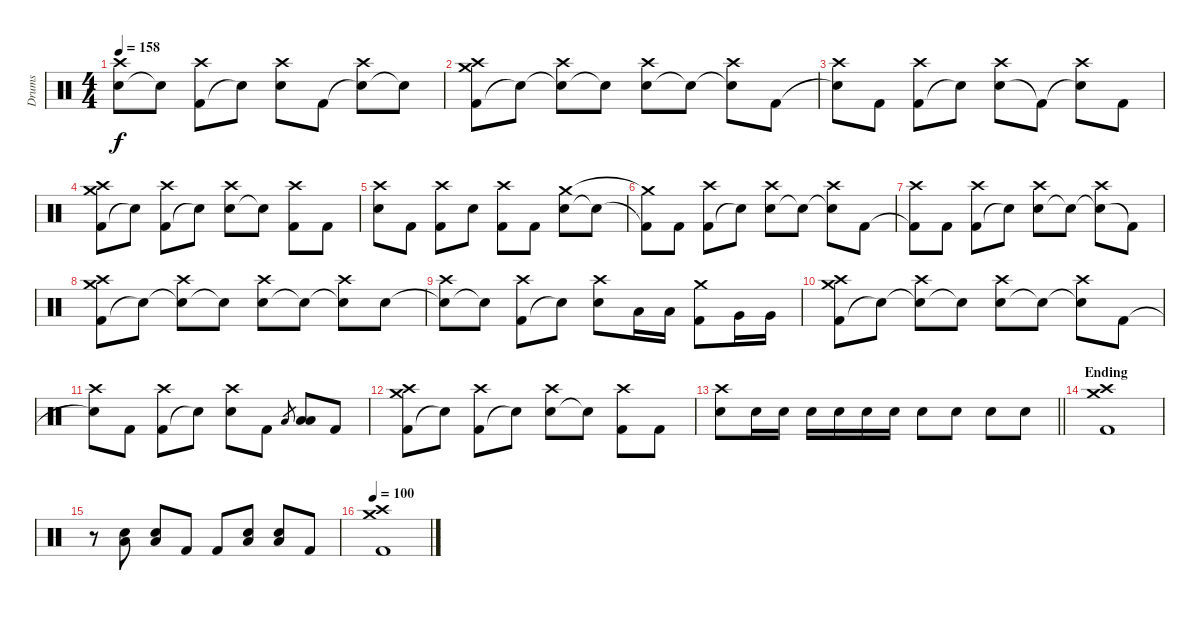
\track ("Drums" "Drums") {instrument percussion}
\staff {score}
\articulation defaults
\ts (4 4)
\tempo 158
\clef neutral
\ks c
("Snare (hit)"{t} "Crash high (hit)").8{dy f} "Snare (hit)"{t}.8 ("Kick (hit) 2" "Crash high (hit)").8 "Snare (hit)"{t}.8 ("Electric Snare (hit)" "Crash high (hit)").8 "Kick (hit) 2".8 ("Snare (hit)"{t} "Crash high (hit)").8 "Snare (hit)"{t}.8 |
("Kick (hit) 2" "Crash medium (hit)" "Crash high (hit)").8 "Snare (hit)"{t}.8 ("Snare (hit)"{t} "Crash high (hit)").8 "Snare (hit)"{t}.8 ("Electric Snare (hit)" "Crash high (hit)").8 "Snare (hit)"{t}.8 ("Snare (hit)"{t} "Crash high (hit)").8 "Kick (hit) 2".8 |
("Snare (hit)"{t} "Crash high (hit)").8 "Kick (hit) 2".8 ("Kick (hit) 2" "Crash high (hit)").8 "Snare (hit)"{t}.8 ("Electric Snare (hit)" "Crash high (hit)").8 "Kick (hit) 2"{t}.8 ("Snare (hit)"{t} "Crash high (hit)").8 "Kick (hit) 2".8 |
("Kick (hit) 2" "Crash medium (hit)" "Crash high (hit)").8 "Snare (hit)"{t}.8 ("Kick (hit) 2" "Crash high (hit)").8 "Snare (hit)"{t}.8 ("Electric Snare (hit)" "Crash high (hit)").8 "Snare (hit)"{t}.8 ("Kick (hit) 2" "Crash high (hit)").8 "Kick (hit) 2".8 |
("Electric Snare (hit)" "Crash high (hit)").8 "Kick (hit) 2".8 ("Kick (hit) 2" "Crash high (hit)").8 "Electric Snare (hit)".8 ("Kick (hit) 2" "Crash high (hit)").8 "Kick (hit) 2".8 ("Electric Snare (hit)" "Crash medium (hit)").8 "Snare (hit)"{t}.8 |
("Kick (hit) 2"{t} "Crash medium (hit)"{t}).8 "Kick (hit) 2".8 ("Kick (hit) 2" "Crash high (hit)").8 "Snare (hit)"{t}.8 ("Electric Snare (hit)" "Crash high (hit)").8 "Snare (hit)"{t}.8 ("Snare (hit)"{t} "Crash high (hit)").8 "Kick (hit) 2".8 |
("Kick (hit) 2"{t} "Crash high (hit)").8 "Kick (hit) 2".8 ("Kick (hit) 2" "Crash high (hit)").8 "Snare (hit)"{t}.8 ("Electric Snare (hit)" "Crash high (hit)").8 "Snare (hit)"{t}.8 ("Snare (hit)"{t} "Crash high (hit)").8 "Kick (hit) 2"{t}.8 |
("Kick (hit) 2" "Crash medium (hit)" "Crash high (hit)").8 "Snare (hit)"{t}.8 ("Snare (hit)"{t} "Crash high (hit)").8 "Snare (hit)"{t}.8 ("Electric Snare (hit)" "Crash high (hit)").8 "Snare (hit)"{t}.8 ("Snare (hit)"{t} "Crash high (hit)").8 "Electric Snare (hit)".8 |
("Snare (hit)"{t} "Crash high (hit)").8 "Snare (hit)"{t}.8 ("Kick (hit) 2" "Crash high (hit)").8 "Snare (hit)"{t}.8 ("Electric Snare (hit)" "Crash high (hit)").8 "Low Tom (hit)".16 "Low Tom (hit)".16 ("Kick (hit) 2" "Crash medium (hit)").8 "Very Low Tom (hit)".16 "Very Low Tom (hit)".16 |
("Kick (hit) 2" "Crash medium (hit)" "Crash high (hit)").8 "Snare (hit)"{t}.8 ("Snare (hit)"{t} "Crash high (hit)").8 "Snare (hit)"{t}.8 ("Electric Snare (hit)" "Crash high (hit)").8 "Snare (hit)"{t}.8 ("Snare (hit)"{t} "Crash high (hit)").8 "Kick (hit) 2".8 |
("Snare (hit)"{t} "Crash high (hit)").8 "Kick (hit) 2".8 ("Kick (hit) 2" "Crash high (hit)").8 "Snare (hit)"{t}.8 ("Electric Snare (hit)" "Crash high (hit)").8 "Kick (hit) 2".8 "Low Tom (hit)".8{gr} ("Low Tom (hit)" "Low Floor Tom (hit)").8 "Kick (hit) 2".8 |
("Kick (hit) 2" "Crash medium (hit)" "Crash high (hit)").8 "Snare (hit)"{t}.8 ("Kick (hit) 2" "Crash high (hit)").8 "Snare (hit)"{t}.8 ("Electric Snare (hit)" "Crash high (hit)").8 "Snare (hit)"{t}.8 ("Kick (hit) 2" "Crash high (hit)").8 "Kick (hit) 2".8 |
\barLineRight lightlight
("Electric Snare (hit)" "Crash high (hit)").8 "Electric Snare (hit)".16 "Electric Snare (hit)".16 "Electric Snare (hit)".16 "Electric Snare (hit)".16 "Electric Snare (hit)".16 "Electric Snare (hit)".16 "Electric Snare (hit)".8 "Electric Snare (hit)".8 "Electric Snare (hit)".8 "Electric Snare (hit)".8 |
\section ("" "Ending")
("Kick (hit) 2" "Crash medium (hit)" "Crash high (hit)").1 |
r.8 ("Electric Snare (hit)" "Low Floor Tom (hit)").8 ("Electric Snare (hit)" "Low Floor Tom (hit)").8 "Kick (hit) 2".8 "Kick (hit) 2".8 ("Electric Snare (hit)" "Low Floor Tom (hit)").8 ("Electric Snare (hit)" "Low Floor Tom (hit)").8 "Kick (hit) 2".8 |
\tempo 100
("Kick (hit) 2" "Crash medium (hit)" "Crash high (hit)").1
